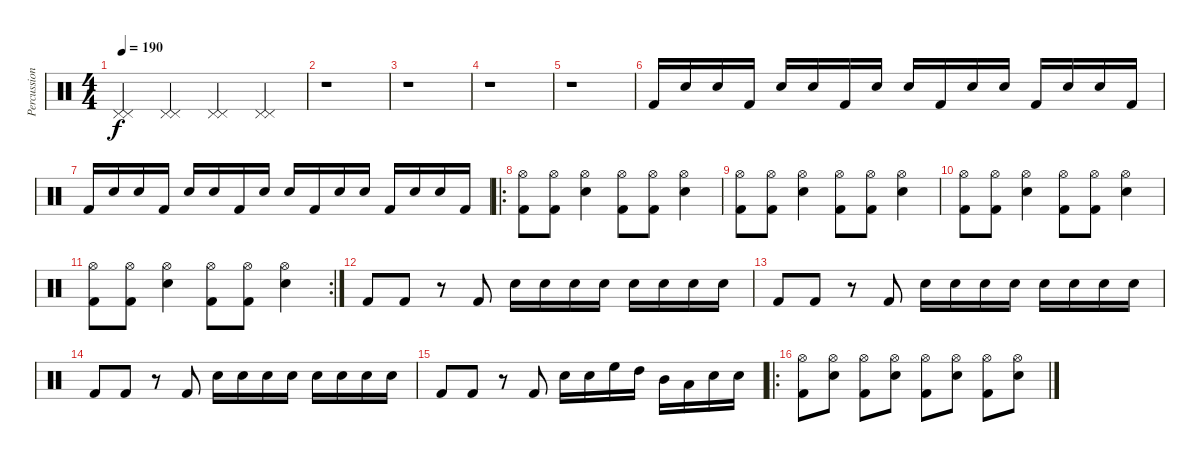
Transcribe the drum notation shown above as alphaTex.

\track ("Percussion" "Percussion") {instrument percussion}
\staff {score}
\articulation defaults
\ts (4 4)
\tempo 190
\clef neutral
\ks c
("Pedal Hi-Hat (hit)" "Pedal Hi-Hat (hit)").4{dy f} ("Pedal Hi-Hat (hit)" "Pedal Hi-Hat (hit)").4 ("Pedal Hi-Hat (hit)" "Pedal Hi-Hat (hit)").4 ("Pedal Hi-Hat (hit)" "Pedal Hi-Hat (hit)").4 |
r.1 |
r.1 |
r.1 |
r.1 |
"Kick (hit) 2".16 "Snare (hit) 2".16 "Snare (hit) 2".16 "Kick (hit) 2".16 "Snare (hit) 2".16 "Snare (hit) 2".16 "Kick (hit) 2".16 "Snare (hit) 2".16 "Snare (hit) 2".16 "Kick (hit) 2".16 "Snare (hit) 2".16 "Snare (hit) 2".16 "Kick (hit) 2".16 "Snare (hit) 2".16 "Snare (hit) 2".16 "Kick (hit) 2".16 |
"Kick (hit) 2".16 "Snare (hit) 2".16 "Snare (hit) 2".16 "Kick (hit) 2".16 "Snare (hit) 2".16 "Snare (hit) 2".16 "Kick (hit) 2".16 "Snare (hit) 2".16 "Snare (hit) 2".16 "Kick (hit) 2".16 "Snare (hit) 2".16 "Snare (hit) 2".16 "Kick (hit) 2".16 "Snare (hit) 2".16 "Snare (hit) 2".16 "Kick (hit) 2".16 |
\ro
("Hi-Hat (open)" "Kick (hit) 2").8 ("Hi-Hat (open)" "Kick (hit) 2").8 ("Hi-Hat (open)" "Snare (hit) 2").4 ("Hi-Hat (open)" "Kick (hit) 2").8 ("Hi-Hat (open)" "Kick (hit) 2").8 ("Hi-Hat (open)" "Snare (hit) 2").4 |
("Hi-Hat (open)" "Kick (hit) 2").8 ("Hi-Hat (open)" "Kick (hit) 2").8 ("Hi-Hat (open)" "Snare (hit) 2").4 ("Hi-Hat (open)" "Kick (hit) 2").8 ("Hi-Hat (open)" "Kick (hit) 2").8 ("Hi-Hat (open)" "Snare (hit) 2").4 |
("Hi-Hat (open)" "Kick (hit) 2").8 ("Hi-Hat (open)" "Kick (hit) 2").8 ("Hi-Hat (open)" "Snare (hit) 2").4 ("Hi-Hat (open)" "Kick (hit) 2").8 ("Hi-Hat (open)" "Kick (hit) 2").8 ("Hi-Hat (open)" "Snare (hit) 2").4 |
\rc 2
("Hi-Hat (open)" "Kick (hit) 2").8 ("Hi-Hat (open)" "Kick (hit) 2").8 ("Hi-Hat (open)" "Snare (hit) 2").4 ("Hi-Hat (open)" "Kick (hit) 2").8 ("Hi-Hat (open)" "Kick (hit) 2").8 ("Hi-Hat (open)" "Snare (hit) 2").4 |
"Kick (hit) 2".8 "Kick (hit) 2".8 r.8 "Kick (hit) 2".8 "Snare (hit) 2".16 "Snare (hit) 2".16 "Snare (hit) 2".16 "Snare (hit) 2".16 "Snare (hit) 2".16 "Snare (hit) 2".16 "Snare (hit) 2".16 "Snare (hit) 2".16 |
"Kick (hit) 2".8 "Kick (hit) 2".8 r.8 "Kick (hit) 2".8 "Snare (hit) 2".16 "Snare (hit) 2".16 "Snare (hit) 2".16 "Snare (hit) 2".16 "Snare (hit) 2".16 "Snare (hit) 2".16 "Snare (hit) 2".16 "Snare (hit) 2".16 |
"Kick (hit) 2".8 "Kick (hit) 2".8 r.8 "Kick (hit) 2".8 "Snare (hit) 2".16 "Snare (hit) 2".16 "Snare (hit) 2".16 "Snare (hit) 2".16 "Snare (hit) 2".16 "Snare (hit) 2".16 "Snare (hit) 2".16 "Snare (hit) 2".16 |
"Kick (hit) 2".8 "Kick (hit) 2".8 r.8 "Kick (hit) 2".8 "Snare (hit) 2".16 "Snare (hit) 2".16 "High Floor Tom (hit)".16 "High Tom (hit)".16 "Mid Tom (hit)".16 "Low Tom (hit)".16 "Snare (hit) 2".16 "Snare (hit) 2".16 |
\ro
("Hi-Hat (open)" "Kick (hit) 2").8 ("Hi-Hat (open)" "Snare (hit) 2").8 ("Hi-Hat (open)" "Kick (hit) 2").8 ("Hi-Hat (open)" "Snare (hit) 2").8 ("Hi-Hat (open)" "Kick (hit) 2").8 ("Hi-Hat (open)" "Snare (hit) 2").8 ("Hi-Hat (open)" "Kick (hit) 2").8 ("Hi-Hat (open)" "Snare (hit) 2").8
